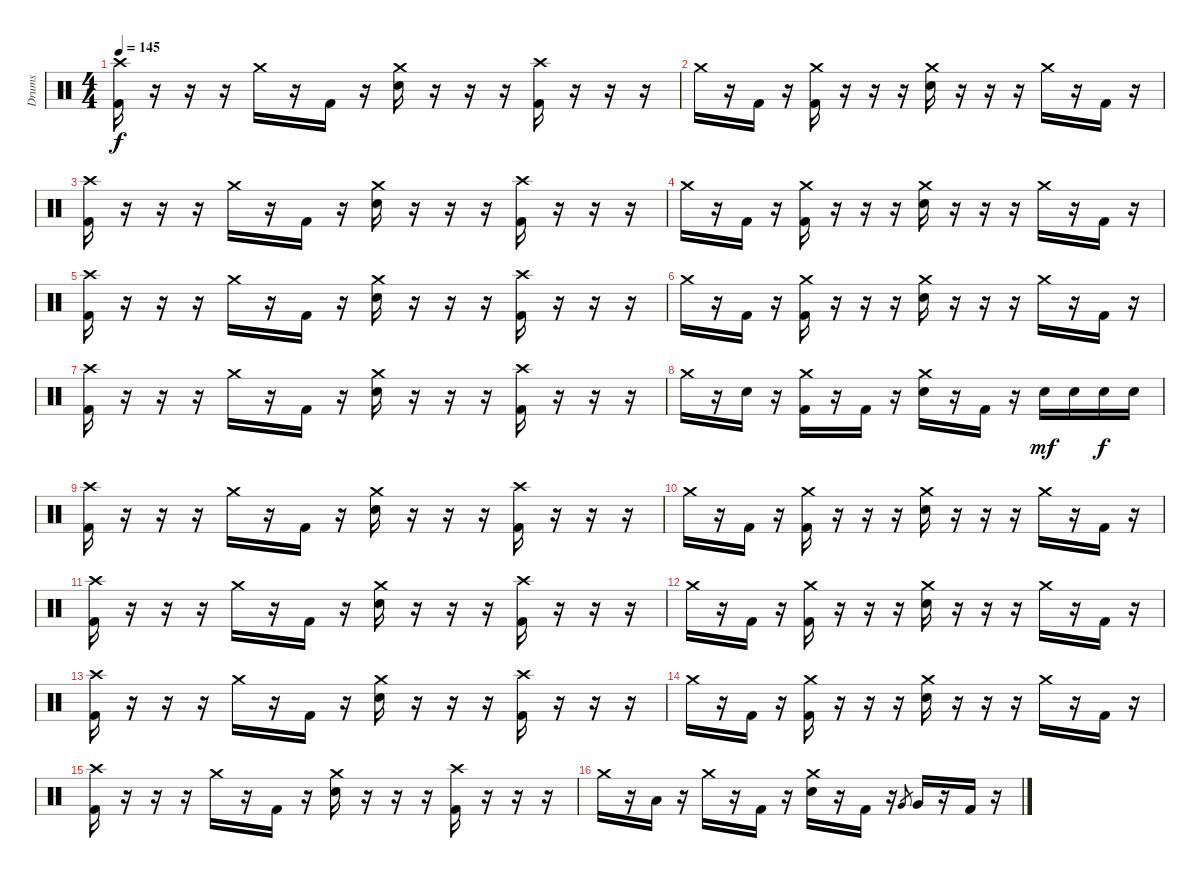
\track ("Drums" "Drums") {instrument percussion}
\staff {score}
\articulation defaults
\ts (4 4)
\tempo 145
\clef neutral
\ks c
("Crash high (hit)" "Kick (hit) 2").16{dy f} r.16 r.16 r.16 "Crash medium (hit)".16 r.16 "Kick (hit) 2".16 r.16 ("Crash medium (hit)" "Electric Snare (hit)").16 r.16 r.16 r.16 ("Crash high (hit)" "Kick (hit) 2").16 r.16 r.16 r.16 |
"Crash medium (hit)".16 r.16 "Kick (hit) 2".16 r.16 ("Crash medium (hit)" "Kick (hit) 2").16 r.16 r.16 r.16 ("Crash medium (hit)" "Electric Snare (hit)").16 r.16 r.16 r.16 "Crash medium (hit)".16 r.16 "Kick (hit) 2".16 r.16 |
("Crash high (hit)" "Kick (hit) 2").16 r.16 r.16 r.16 "Crash medium (hit)".16 r.16 "Kick (hit) 2".16 r.16 ("Crash medium (hit)" "Electric Snare (hit)").16 r.16 r.16 r.16 ("Crash high (hit)" "Kick (hit) 2").16 r.16 r.16 r.16 |
"Crash medium (hit)".16 r.16 "Kick (hit) 2".16 r.16 ("Crash medium (hit)" "Kick (hit) 2").16 r.16 r.16 r.16 ("Crash medium (hit)" "Electric Snare (hit)").16 r.16 r.16 r.16 "Crash medium (hit)".16 r.16 "Kick (hit) 2".16 r.16 |
("Crash high (hit)" "Kick (hit) 2").16 r.16 r.16 r.16 "Crash medium (hit)".16 r.16 "Kick (hit) 2".16 r.16 ("Crash medium (hit)" "Electric Snare (hit)").16 r.16 r.16 r.16 ("Crash high (hit)" "Kick (hit) 2").16 r.16 r.16 r.16 |
"Crash medium (hit)".16 r.16 "Kick (hit) 2".16 r.16 ("Crash medium (hit)" "Kick (hit) 2").16 r.16 r.16 r.16 ("Crash medium (hit)" "Electric Snare (hit)").16 r.16 r.16 r.16 "Crash medium (hit)".16 r.16 "Kick (hit) 2".16 r.16 |
("Crash high (hit)" "Kick (hit) 2").16 r.16 r.16 r.16 "Crash medium (hit)".16 r.16 "Kick (hit) 2".16 r.16 ("Crash medium (hit)" "Electric Snare (hit)").16 r.16 r.16 r.16 ("Crash high (hit)" "Kick (hit) 2").16 r.16 r.16 r.16 |
"Crash medium (hit)".16 r.16 "Electric Snare (hit)".16 r.16 ("Crash medium (hit)" "Kick (hit) 2").16 r.16 "Kick (hit) 2".16 r.16 ("Crash medium (hit)" "Electric Snare (hit)").16 r.16 "Kick (hit) 2".16 r.16 "Electric Snare (hit)".16{dy mf} "Electric Snare (hit)".16 "Electric Snare (hit)".16{dy f} "Electric Snare (hit)".16 |
("Crash high (hit)" "Kick (hit) 2").16 r.16 r.16 r.16 "Crash medium (hit)".16 r.16 "Kick (hit) 2".16 r.16 ("Crash medium (hit)" "Electric Snare (hit)").16 r.16 r.16 r.16 ("Crash high (hit)" "Kick (hit) 2").16 r.16 r.16 r.16 |
"Crash medium (hit)".16 r.16 "Kick (hit) 2".16 r.16 ("Crash medium (hit)" "Kick (hit) 2").16 r.16 r.16 r.16 ("Crash medium (hit)" "Electric Snare (hit)").16 r.16 r.16 r.16 "Crash medium (hit)".16 r.16 "Kick (hit) 2".16 r.16 |
("Crash high (hit)" "Kick (hit) 2").16 r.16 r.16 r.16 "Crash medium (hit)".16 r.16 "Kick (hit) 2".16 r.16 ("Crash medium (hit)" "Electric Snare (hit)").16 r.16 r.16 r.16 ("Crash high (hit)" "Kick (hit) 2").16 r.16 r.16 r.16 |
"Crash medium (hit)".16 r.16 "Kick (hit) 2".16 r.16 ("Crash medium (hit)" "Kick (hit) 2").16 r.16 r.16 r.16 ("Crash medium (hit)" "Electric Snare (hit)").16 r.16 r.16 r.16 "Crash medium (hit)".16 r.16 "Kick (hit) 2".16 r.16 |
("Crash high (hit)" "Kick (hit) 2").16 r.16 r.16 r.16 "Crash medium (hit)".16 r.16 "Kick (hit) 2".16 r.16 ("Crash medium (hit)" "Electric Snare (hit)").16 r.16 r.16 r.16 ("Crash high (hit)" "Kick (hit) 2").16 r.16 r.16 r.16 |
"Crash medium (hit)".16 r.16 "Kick (hit) 2".16 r.16 ("Crash medium (hit)" "Kick (hit) 2").16 r.16 r.16 r.16 ("Crash medium (hit)" "Electric Snare (hit)").16 r.16 r.16 r.16 "Crash medium (hit)".16 r.16 "Kick (hit) 2".16 r.16 |
("Crash high (hit)" "Kick (hit) 2").16 r.16 r.16 r.16 "Crash medium (hit)".16 r.16 "Kick (hit) 2".16 r.16 ("Crash medium (hit)" "Electric Snare (hit)").16 r.16 r.16 r.16 ("Crash high (hit)" "Kick (hit) 2").16 r.16 r.16 r.16 |
"Crash medium (hit)".16 r.16 "Low Tom (hit)".16 r.16 "Crash medium (hit)".16 r.16 "Kick (hit) 2".16 r.16 ("Crash medium (hit)" "Electric Snare (hit)").16 r.16 "Kick (hit) 2".16 r.16 "Very Low Tom (hit)".8{gr} "Very Low Tom (hit)".16 r.16 "Kick (hit) 2".16 r.16
